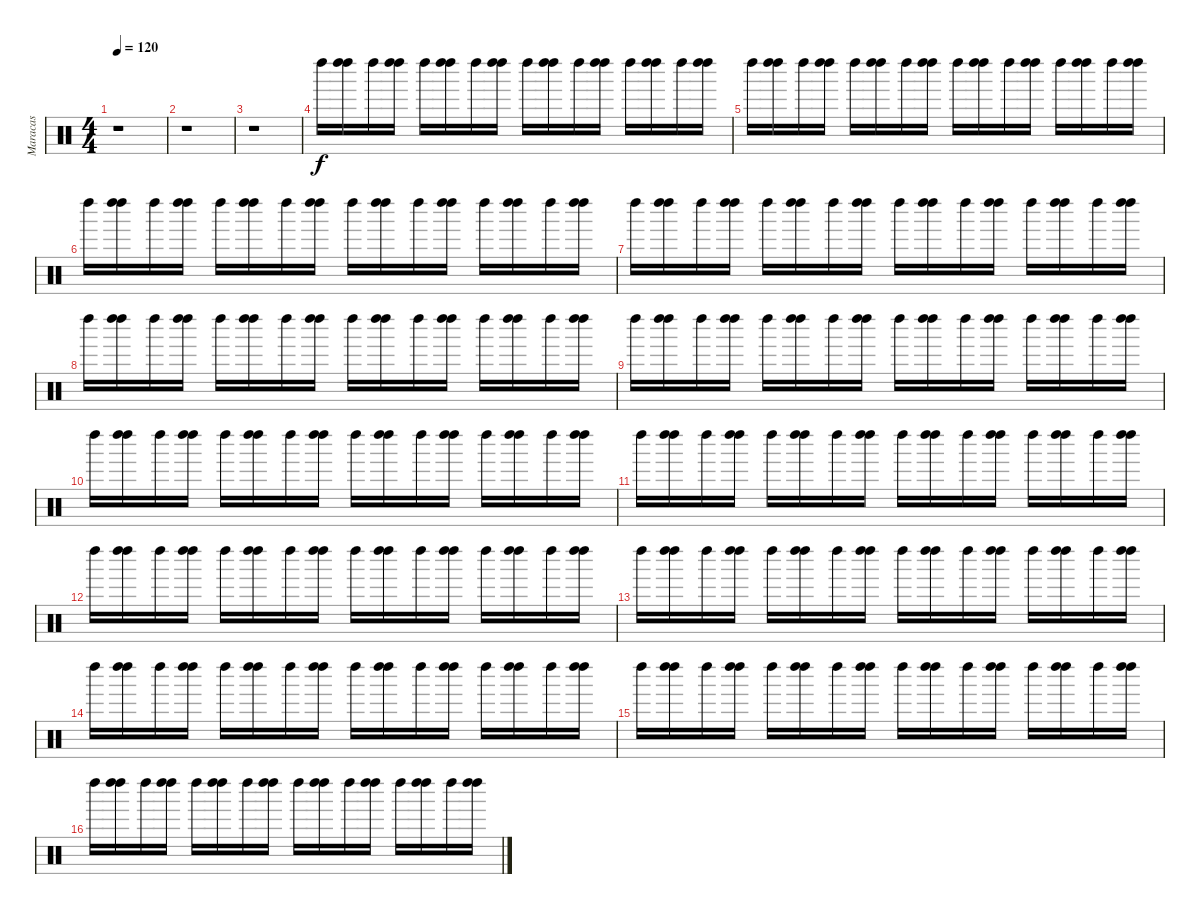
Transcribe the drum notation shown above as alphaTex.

\track ("Maracas" "Maracas") {instrument percussion}
\staff {score}
\articulation defaults
\ts (4 4)
\tempo 120
\clef neutral
\ks c
r.1{dy f} |
r.1 |
r.1 |
"Left Maraca (hit)".16 ("Left Maraca (hit)" "Left Maraca (hit)").16 "Left Maraca (hit)".16 ("Left Maraca (hit)" "Left Maraca (hit)").16 "Left Maraca (hit)".16 ("Left Maraca (hit)" "Left Maraca (hit)").16 "Left Maraca (hit)".16 ("Left Maraca (hit)" "Left Maraca (hit)").16 "Left Maraca (hit)".16 ("Left Maraca (hit)" "Left Maraca (hit)").16 "Left Maraca (hit)".16 ("Left Maraca (hit)" "Left Maraca (hit)").16 "Left Maraca (hit)".16 ("Left Maraca (hit)" "Left Maraca (hit)").16 "Left Maraca (hit)".16 ("Left Maraca (hit)" "Left Maraca (hit)").16 |
"Left Maraca (hit)".16 ("Left Maraca (hit)" "Left Maraca (hit)").16 "Left Maraca (hit)".16 ("Left Maraca (hit)" "Left Maraca (hit)").16 "Left Maraca (hit)".16 ("Left Maraca (hit)" "Left Maraca (hit)").16 "Left Maraca (hit)".16 ("Left Maraca (hit)" "Left Maraca (hit)").16 "Left Maraca (hit)".16 ("Left Maraca (hit)" "Left Maraca (hit)").16 "Left Maraca (hit)".16 ("Left Maraca (hit)" "Left Maraca (hit)").16 "Left Maraca (hit)".16 ("Left Maraca (hit)" "Left Maraca (hit)").16 "Left Maraca (hit)".16 ("Left Maraca (hit)" "Left Maraca (hit)").16 |
"Left Maraca (hit)".16 ("Left Maraca (hit)" "Left Maraca (hit)").16 "Left Maraca (hit)".16 ("Left Maraca (hit)" "Left Maraca (hit)").16 "Left Maraca (hit)".16 ("Left Maraca (hit)" "Left Maraca (hit)").16 "Left Maraca (hit)".16 ("Left Maraca (hit)" "Left Maraca (hit)").16 "Left Maraca (hit)".16 ("Left Maraca (hit)" "Left Maraca (hit)").16 "Left Maraca (hit)".16 ("Left Maraca (hit)" "Left Maraca (hit)").16 "Left Maraca (hit)".16 ("Left Maraca (hit)" "Left Maraca (hit)").16 "Left Maraca (hit)".16 ("Left Maraca (hit)" "Left Maraca (hit)").16 |
"Left Maraca (hit)".16 ("Left Maraca (hit)" "Left Maraca (hit)").16 "Left Maraca (hit)".16 ("Left Maraca (hit)" "Left Maraca (hit)").16 "Left Maraca (hit)".16 ("Left Maraca (hit)" "Left Maraca (hit)").16 "Left Maraca (hit)".16 ("Left Maraca (hit)" "Left Maraca (hit)").16 "Left Maraca (hit)".16 ("Left Maraca (hit)" "Left Maraca (hit)").16 "Left Maraca (hit)".16 ("Left Maraca (hit)" "Left Maraca (hit)").16 "Left Maraca (hit)".16 ("Left Maraca (hit)" "Left Maraca (hit)").16 "Left Maraca (hit)".16 ("Left Maraca (hit)" "Left Maraca (hit)").16 |
"Left Maraca (hit)".16 ("Left Maraca (hit)" "Left Maraca (hit)").16 "Left Maraca (hit)".16 ("Left Maraca (hit)" "Left Maraca (hit)").16 "Left Maraca (hit)".16 ("Left Maraca (hit)" "Left Maraca (hit)").16 "Left Maraca (hit)".16 ("Left Maraca (hit)" "Left Maraca (hit)").16 "Left Maraca (hit)".16 ("Left Maraca (hit)" "Left Maraca (hit)").16 "Left Maraca (hit)".16 ("Left Maraca (hit)" "Left Maraca (hit)").16 "Left Maraca (hit)".16 ("Left Maraca (hit)" "Left Maraca (hit)").16 "Left Maraca (hit)".16 ("Left Maraca (hit)" "Left Maraca (hit)").16 |
"Left Maraca (hit)".16 ("Left Maraca (hit)" "Left Maraca (hit)").16 "Left Maraca (hit)".16 ("Left Maraca (hit)" "Left Maraca (hit)").16 "Left Maraca (hit)".16 ("Left Maraca (hit)" "Left Maraca (hit)").16 "Left Maraca (hit)".16 ("Left Maraca (hit)" "Left Maraca (hit)").16 "Left Maraca (hit)".16 ("Left Maraca (hit)" "Left Maraca (hit)").16 "Left Maraca (hit)".16 ("Left Maraca (hit)" "Left Maraca (hit)").16 "Left Maraca (hit)".16 ("Left Maraca (hit)" "Left Maraca (hit)").16 "Left Maraca (hit)".16 ("Left Maraca (hit)" "Left Maraca (hit)").16 |
"Left Maraca (hit)".16 ("Left Maraca (hit)" "Left Maraca (hit)").16 "Left Maraca (hit)".16 ("Left Maraca (hit)" "Left Maraca (hit)").16 "Left Maraca (hit)".16 ("Left Maraca (hit)" "Left Maraca (hit)").16 "Left Maraca (hit)".16 ("Left Maraca (hit)" "Left Maraca (hit)").16 "Left Maraca (hit)".16 ("Left Maraca (hit)" "Left Maraca (hit)").16 "Left Maraca (hit)".16 ("Left Maraca (hit)" "Left Maraca (hit)").16 "Left Maraca (hit)".16 ("Left Maraca (hit)" "Left Maraca (hit)").16 "Left Maraca (hit)".16 ("Left Maraca (hit)" "Left Maraca (hit)").16 |
"Left Maraca (hit)".16 ("Left Maraca (hit)" "Left Maraca (hit)").16 "Left Maraca (hit)".16 ("Left Maraca (hit)" "Left Maraca (hit)").16 "Left Maraca (hit)".16 ("Left Maraca (hit)" "Left Maraca (hit)").16 "Left Maraca (hit)".16 ("Left Maraca (hit)" "Left Maraca (hit)").16 "Left Maraca (hit)".16 ("Left Maraca (hit)" "Left Maraca (hit)").16 "Left Maraca (hit)".16 ("Left Maraca (hit)" "Left Maraca (hit)").16 "Left Maraca (hit)".16 ("Left Maraca (hit)" "Left Maraca (hit)").16 "Left Maraca (hit)".16 ("Left Maraca (hit)" "Left Maraca (hit)").16 |
"Left Maraca (hit)".16 ("Left Maraca (hit)" "Left Maraca (hit)").16 "Left Maraca (hit)".16 ("Left Maraca (hit)" "Left Maraca (hit)").16 "Left Maraca (hit)".16 ("Left Maraca (hit)" "Left Maraca (hit)").16 "Left Maraca (hit)".16 ("Left Maraca (hit)" "Left Maraca (hit)").16 "Left Maraca (hit)".16 ("Left Maraca (hit)" "Left Maraca (hit)").16 "Left Maraca (hit)".16 ("Left Maraca (hit)" "Left Maraca (hit)").16 "Left Maraca (hit)".16 ("Left Maraca (hit)" "Left Maraca (hit)").16 "Left Maraca (hit)".16 ("Left Maraca (hit)" "Left Maraca (hit)").16 |
"Left Maraca (hit)".16 ("Left Maraca (hit)" "Left Maraca (hit)").16 "Left Maraca (hit)".16 ("Left Maraca (hit)" "Left Maraca (hit)").16 "Left Maraca (hit)".16 ("Left Maraca (hit)" "Left Maraca (hit)").16 "Left Maraca (hit)".16 ("Left Maraca (hit)" "Left Maraca (hit)").16 "Left Maraca (hit)".16 ("Left Maraca (hit)" "Left Maraca (hit)").16 "Left Maraca (hit)".16 ("Left Maraca (hit)" "Left Maraca (hit)").16 "Left Maraca (hit)".16 ("Left Maraca (hit)" "Left Maraca (hit)").16 "Left Maraca (hit)".16 ("Left Maraca (hit)" "Left Maraca (hit)").16 |
"Left Maraca (hit)".16 ("Left Maraca (hit)" "Left Maraca (hit)").16 "Left Maraca (hit)".16 ("Left Maraca (hit)" "Left Maraca (hit)").16 "Left Maraca (hit)".16 ("Left Maraca (hit)" "Left Maraca (hit)").16 "Left Maraca (hit)".16 ("Left Maraca (hit)" "Left Maraca (hit)").16 "Left Maraca (hit)".16 ("Left Maraca (hit)" "Left Maraca (hit)").16 "Left Maraca (hit)".16 ("Left Maraca (hit)" "Left Maraca (hit)").16 "Left Maraca (hit)".16 ("Left Maraca (hit)" "Left Maraca (hit)").16 "Left Maraca (hit)".16 ("Left Maraca (hit)" "Left Maraca (hit)").16 |
"Left Maraca (hit)".16 ("Left Maraca (hit)" "Left Maraca (hit)").16 "Left Maraca (hit)".16 ("Left Maraca (hit)" "Left Maraca (hit)").16 "Left Maraca (hit)".16 ("Left Maraca (hit)" "Left Maraca (hit)").16 "Left Maraca (hit)".16 ("Left Maraca (hit)" "Left Maraca (hit)").16 "Left Maraca (hit)".16 ("Left Maraca (hit)" "Left Maraca (hit)").16 "Left Maraca (hit)".16 ("Left Maraca (hit)" "Left Maraca (hit)").16 "Left Maraca (hit)".16 ("Left Maraca (hit)" "Left Maraca (hit)").16 "Left Maraca (hit)".16 ("Left Maraca (hit)" "Left Maraca (hit)").16 |
"Left Maraca (hit)".16 ("Left Maraca (hit)" "Left Maraca (hit)").16 "Left Maraca (hit)".16 ("Left Maraca (hit)" "Left Maraca (hit)").16 "Left Maraca (hit)".16 ("Left Maraca (hit)" "Left Maraca (hit)").16 "Left Maraca (hit)".16 ("Left Maraca (hit)" "Left Maraca (hit)").16 "Left Maraca (hit)".16 ("Left Maraca (hit)" "Left Maraca (hit)").16 "Left Maraca (hit)".16 ("Left Maraca (hit)" "Left Maraca (hit)").16 "Left Maraca (hit)".16 ("Left Maraca (hit)" "Left Maraca (hit)").16 "Left Maraca (hit)".16 ("Left Maraca (hit)" "Left Maraca (hit)").16
